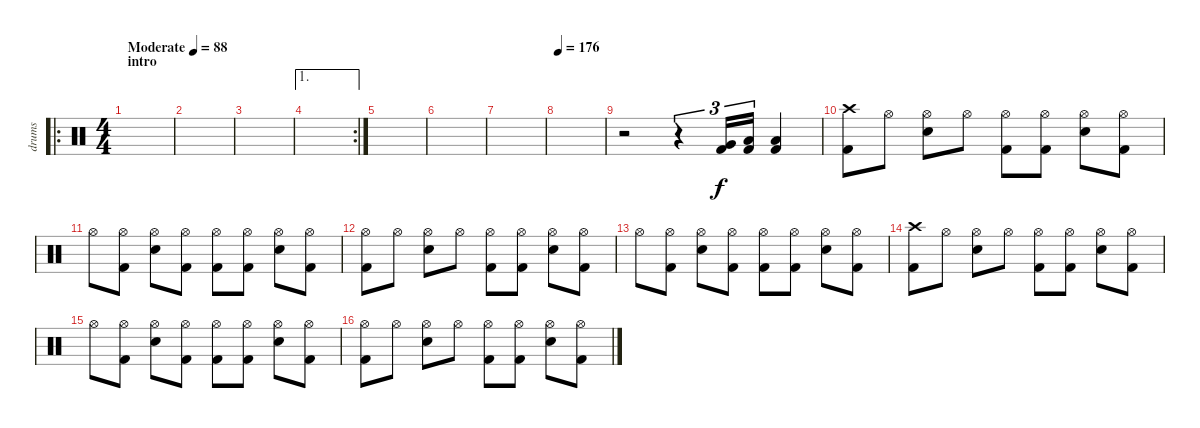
\track ("drums" "drums") {instrument percussion}
\staff {score}
\articulation defaults
\ro
\ts (4 4)
\section ("" "intro")
\tempo (88 "Moderate")
\clef neutral
\ks c
|
|
|
\ae 1
\rc 2
|
|
|
|
\tempo 176
|
r.2 r.4{tu (3 2)} ("Very Low Tom (hit)" "Kick (hit) 2").16{tu (3 2)} ("Low Floor Tom (hit)" "Kick (hit) 2").16{tu (3 2)} ("Low Floor Tom (hit)" "Kick (hit) 2").4 |
("Crash high (hit)" "Kick (hit) 2").8 "Hi-Hat (open)".8 ("Hi-Hat (open)" "Snare (hit) 2").8 "Hi-Hat (open)".8 ("Hi-Hat (open)" "Kick (hit) 2").8 ("Hi-Hat (open)" "Kick (hit) 2").8 ("Hi-Hat (open)" "Snare (hit) 2").8 ("Hi-Hat (open)" "Kick (hit) 2").8 |
"Hi-Hat (open)".8 ("Hi-Hat (open)" "Kick (hit) 2").8 ("Hi-Hat (open)" "Snare (hit) 2").8 ("Hi-Hat (open)" "Kick (hit) 2").8 ("Hi-Hat (open)" "Kick (hit) 2").8 ("Hi-Hat (open)" "Kick (hit) 2").8 ("Hi-Hat (open)" "Snare (hit) 2").8 ("Hi-Hat (open)" "Kick (hit) 2").8 |
("Hi-Hat (open)" "Kick (hit) 2").8 "Hi-Hat (open)".8 ("Hi-Hat (open)" "Snare (hit) 2").8 "Hi-Hat (open)".8 ("Hi-Hat (open)" "Kick (hit) 2").8 ("Hi-Hat (open)" "Kick (hit) 2").8 ("Hi-Hat (open)" "Snare (hit) 2").8 ("Hi-Hat (open)" "Kick (hit) 2").8 |
"Hi-Hat (open)".8 ("Hi-Hat (open)" "Kick (hit) 2").8 ("Hi-Hat (open)" "Snare (hit) 2").8 ("Hi-Hat (open)" "Kick (hit) 2").8 ("Hi-Hat (open)" "Kick (hit) 2").8 ("Hi-Hat (open)" "Kick (hit) 2").8 ("Hi-Hat (open)" "Snare (hit) 2").8 ("Hi-Hat (open)" "Kick (hit) 2").8 |
("Crash high (hit)" "Kick (hit) 2").8 "Hi-Hat (open)".8 ("Hi-Hat (open)" "Snare (hit) 2").8 "Hi-Hat (open)".8 ("Hi-Hat (open)" "Kick (hit) 2").8 ("Hi-Hat (open)" "Kick (hit) 2").8 ("Hi-Hat (open)" "Snare (hit) 2").8 ("Hi-Hat (open)" "Kick (hit) 2").8 |
"Hi-Hat (open)".8 ("Hi-Hat (open)" "Kick (hit) 2").8 ("Hi-Hat (open)" "Snare (hit) 2").8 ("Hi-Hat (open)" "Kick (hit) 2").8 ("Hi-Hat (open)" "Kick (hit) 2").8 ("Hi-Hat (open)" "Kick (hit) 2").8 ("Hi-Hat (open)" "Snare (hit) 2").8 ("Hi-Hat (open)" "Kick (hit) 2").8 |
("Hi-Hat (open)" "Kick (hit) 2").8 "Hi-Hat (open)".8 ("Hi-Hat (open)" "Snare (hit) 2").8 "Hi-Hat (open)".8 ("Hi-Hat (open)" "Kick (hit) 2").8 ("Hi-Hat (open)" "Kick (hit) 2").8 ("Hi-Hat (open)" "Snare (hit) 2").8 ("Hi-Hat (open)" "Kick (hit) 2").8
